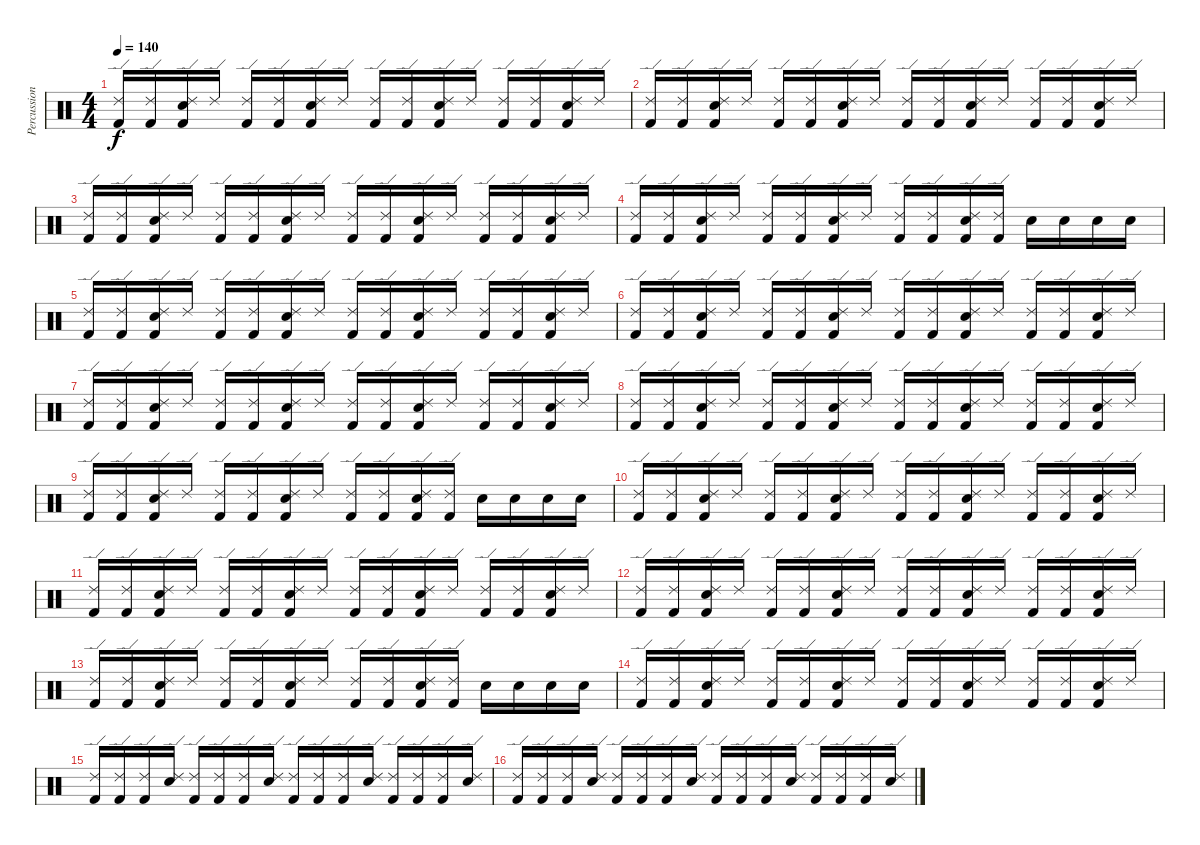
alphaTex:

\track ("Percussion" "Percussion") {instrument percussion}
\staff {score}
\articulation defaults
\ts (4 4)
\tempo 140
\clef neutral
\ks c
("Kick (hit) 2" "Ride (edge) 2").16{dy f} ("Kick (hit) 2" "Ride (edge) 2").16 ("Kick (hit) 2" "Electric Snare (hit)" "Ride (edge) 2").16 "Ride (edge) 2".16 ("Kick (hit) 2" "Ride (edge) 2").16 ("Kick (hit) 2" "Ride (edge) 2").16 ("Kick (hit) 2" "Electric Snare (hit)" "Ride (edge) 2").16 "Ride (edge) 2".16 ("Kick (hit) 2" "Ride (edge) 2").16 ("Kick (hit) 2" "Ride (edge) 2").16 ("Kick (hit) 2" "Electric Snare (hit)" "Ride (edge) 2").16 "Ride (edge) 2".16 ("Kick (hit) 2" "Ride (edge) 2").16 ("Kick (hit) 2" "Ride (edge) 2").16 ("Kick (hit) 2" "Electric Snare (hit)" "Ride (edge) 2").16 "Ride (edge) 2".16 |
("Kick (hit) 2" "Ride (edge) 2").16 ("Kick (hit) 2" "Ride (edge) 2").16 ("Kick (hit) 2" "Electric Snare (hit)" "Ride (edge) 2").16 "Ride (edge) 2".16 ("Kick (hit) 2" "Ride (edge) 2").16 ("Kick (hit) 2" "Ride (edge) 2").16 ("Kick (hit) 2" "Electric Snare (hit)" "Ride (edge) 2").16 "Ride (edge) 2".16 ("Kick (hit) 2" "Ride (edge) 2").16 ("Kick (hit) 2" "Ride (edge) 2").16 ("Kick (hit) 2" "Electric Snare (hit)" "Ride (edge) 2").16 "Ride (edge) 2".16 ("Kick (hit) 2" "Ride (edge) 2").16 ("Kick (hit) 2" "Ride (edge) 2").16 ("Kick (hit) 2" "Electric Snare (hit)" "Ride (edge) 2").16 "Ride (edge) 2".16 |
("Kick (hit) 2" "Ride (edge) 2").16 ("Kick (hit) 2" "Ride (edge) 2").16 ("Kick (hit) 2" "Electric Snare (hit)" "Ride (edge) 2").16 "Ride (edge) 2".16 ("Kick (hit) 2" "Ride (edge) 2").16 ("Kick (hit) 2" "Ride (edge) 2").16 ("Kick (hit) 2" "Electric Snare (hit)" "Ride (edge) 2").16 "Ride (edge) 2".16 ("Kick (hit) 2" "Ride (edge) 2").16 ("Kick (hit) 2" "Ride (edge) 2").16 ("Kick (hit) 2" "Electric Snare (hit)" "Ride (edge) 2").16 "Ride (edge) 2".16 ("Kick (hit) 2" "Ride (edge) 2").16 ("Kick (hit) 2" "Ride (edge) 2").16 ("Kick (hit) 2" "Electric Snare (hit)" "Ride (edge) 2").16 "Ride (edge) 2".16 |
("Kick (hit) 2" "Ride (edge) 2").16 ("Kick (hit) 2" "Ride (edge) 2").16 ("Kick (hit) 2" "Electric Snare (hit)" "Ride (edge) 2").16 "Ride (edge) 2".16 ("Kick (hit) 2" "Ride (edge) 2").16 ("Kick (hit) 2" "Ride (edge) 2").16 ("Kick (hit) 2" "Electric Snare (hit)" "Ride (edge) 2").16 "Ride (edge) 2".16 ("Kick (hit) 2" "Ride (edge) 2").16 ("Kick (hit) 2" "Ride (edge) 2").16 ("Kick (hit) 2" "Electric Snare (hit)" "Ride (edge) 2").16 ("Kick (hit) 2" "Ride (edge) 2").16 "Electric Snare (hit)".16 "Electric Snare (hit)".16 "Electric Snare (hit)".16 "Electric Snare (hit)".16 |
("Kick (hit) 2" "Ride (edge) 2").16 ("Kick (hit) 2" "Ride (edge) 2").16 ("Kick (hit) 2" "Electric Snare (hit)" "Ride (edge) 2").16 "Ride (edge) 2".16 ("Kick (hit) 2" "Ride (edge) 2").16 ("Kick (hit) 2" "Ride (edge) 2").16 ("Kick (hit) 2" "Electric Snare (hit)" "Ride (edge) 2").16 "Ride (edge) 2".16 ("Kick (hit) 2" "Ride (edge) 2").16 ("Kick (hit) 2" "Ride (edge) 2").16 ("Kick (hit) 2" "Electric Snare (hit)" "Ride (edge) 2").16 "Ride (edge) 2".16 ("Kick (hit) 2" "Ride (edge) 2").16 ("Kick (hit) 2" "Ride (edge) 2").16 ("Kick (hit) 2" "Electric Snare (hit)" "Ride (edge) 2").16 "Ride (edge) 2".16 |
("Kick (hit) 2" "Ride (edge) 2").16 ("Kick (hit) 2" "Ride (edge) 2").16 ("Kick (hit) 2" "Electric Snare (hit)" "Ride (edge) 2").16 "Ride (edge) 2".16 ("Kick (hit) 2" "Ride (edge) 2").16 ("Kick (hit) 2" "Ride (edge) 2").16 ("Kick (hit) 2" "Electric Snare (hit)" "Ride (edge) 2").16 "Ride (edge) 2".16 ("Kick (hit) 2" "Ride (edge) 2").16 ("Kick (hit) 2" "Ride (edge) 2").16 ("Kick (hit) 2" "Electric Snare (hit)" "Ride (edge) 2").16 "Ride (edge) 2".16 ("Kick (hit) 2" "Ride (edge) 2").16 ("Kick (hit) 2" "Ride (edge) 2").16 ("Kick (hit) 2" "Electric Snare (hit)" "Ride (edge) 2").16 "Ride (edge) 2".16 |
("Kick (hit) 2" "Ride (edge) 2").16 ("Kick (hit) 2" "Ride (edge) 2").16 ("Kick (hit) 2" "Electric Snare (hit)" "Ride (edge) 2").16 "Ride (edge) 2".16 ("Kick (hit) 2" "Ride (edge) 2").16 ("Kick (hit) 2" "Ride (edge) 2").16 ("Kick (hit) 2" "Electric Snare (hit)" "Ride (edge) 2").16 "Ride (edge) 2".16 ("Kick (hit) 2" "Ride (edge) 2").16 ("Kick (hit) 2" "Ride (edge) 2").16 ("Kick (hit) 2" "Electric Snare (hit)" "Ride (edge) 2").16 "Ride (edge) 2".16 ("Kick (hit) 2" "Ride (edge) 2").16 ("Kick (hit) 2" "Ride (edge) 2").16 ("Kick (hit) 2" "Electric Snare (hit)" "Ride (edge) 2").16 "Ride (edge) 2".16 |
("Kick (hit) 2" "Ride (edge) 2").16 ("Kick (hit) 2" "Ride (edge) 2").16 ("Kick (hit) 2" "Electric Snare (hit)" "Ride (edge) 2").16 "Ride (edge) 2".16 ("Kick (hit) 2" "Ride (edge) 2").16 ("Kick (hit) 2" "Ride (edge) 2").16 ("Kick (hit) 2" "Electric Snare (hit)" "Ride (edge) 2").16 "Ride (edge) 2".16 ("Kick (hit) 2" "Ride (edge) 2").16 ("Kick (hit) 2" "Ride (edge) 2").16 ("Kick (hit) 2" "Electric Snare (hit)" "Ride (edge) 2").16 "Ride (edge) 2".16 ("Kick (hit) 2" "Ride (edge) 2").16 ("Kick (hit) 2" "Ride (edge) 2").16 ("Kick (hit) 2" "Electric Snare (hit)" "Ride (edge) 2").16 "Ride (edge) 2".16 |
("Kick (hit) 2" "Ride (edge) 2").16 ("Kick (hit) 2" "Ride (edge) 2").16 ("Kick (hit) 2" "Electric Snare (hit)" "Ride (edge) 2").16 "Ride (edge) 2".16 ("Kick (hit) 2" "Ride (edge) 2").16 ("Kick (hit) 2" "Ride (edge) 2").16 ("Kick (hit) 2" "Electric Snare (hit)" "Ride (edge) 2").16 "Ride (edge) 2".16 ("Kick (hit) 2" "Ride (edge) 2").16 ("Kick (hit) 2" "Ride (edge) 2").16 ("Kick (hit) 2" "Electric Snare (hit)" "Ride (edge) 2").16 ("Kick (hit) 2" "Ride (edge) 2").16 "Electric Snare (hit)".16 "Electric Snare (hit)".16 "Electric Snare (hit)".16 "Electric Snare (hit)".16 |
("Kick (hit) 2" "Ride (edge) 2").16 ("Kick (hit) 2" "Ride (edge) 2").16 ("Kick (hit) 2" "Electric Snare (hit)" "Ride (edge) 2").16 "Ride (edge) 2".16 ("Kick (hit) 2" "Ride (edge) 2").16 ("Kick (hit) 2" "Ride (edge) 2").16 ("Kick (hit) 2" "Electric Snare (hit)" "Ride (edge) 2").16 "Ride (edge) 2".16 ("Kick (hit) 2" "Ride (edge) 2").16 ("Kick (hit) 2" "Ride (edge) 2").16 ("Kick (hit) 2" "Electric Snare (hit)" "Ride (edge) 2").16 "Ride (edge) 2".16 ("Kick (hit) 2" "Ride (edge) 2").16 ("Kick (hit) 2" "Ride (edge) 2").16 ("Kick (hit) 2" "Electric Snare (hit)" "Ride (edge) 2").16 "Ride (edge) 2".16 |
("Kick (hit) 2" "Ride (edge) 2").16 ("Kick (hit) 2" "Ride (edge) 2").16 ("Kick (hit) 2" "Electric Snare (hit)" "Ride (edge) 2").16 "Ride (edge) 2".16 ("Kick (hit) 2" "Ride (edge) 2").16 ("Kick (hit) 2" "Ride (edge) 2").16 ("Kick (hit) 2" "Electric Snare (hit)" "Ride (edge) 2").16 "Ride (edge) 2".16 ("Kick (hit) 2" "Ride (edge) 2").16 ("Kick (hit) 2" "Ride (edge) 2").16 ("Kick (hit) 2" "Electric Snare (hit)" "Ride (edge) 2").16 "Ride (edge) 2".16 ("Kick (hit) 2" "Ride (edge) 2").16 ("Kick (hit) 2" "Ride (edge) 2").16 ("Kick (hit) 2" "Electric Snare (hit)" "Ride (edge) 2").16 "Ride (edge) 2".16 |
("Kick (hit) 2" "Ride (edge) 2").16 ("Kick (hit) 2" "Ride (edge) 2").16 ("Kick (hit) 2" "Electric Snare (hit)" "Ride (edge) 2").16 "Ride (edge) 2".16 ("Kick (hit) 2" "Ride (edge) 2").16 ("Kick (hit) 2" "Ride (edge) 2").16 ("Kick (hit) 2" "Electric Snare (hit)" "Ride (edge) 2").16 "Ride (edge) 2".16 ("Kick (hit) 2" "Ride (edge) 2").16 ("Kick (hit) 2" "Ride (edge) 2").16 ("Kick (hit) 2" "Electric Snare (hit)" "Ride (edge) 2").16 "Ride (edge) 2".16 ("Kick (hit) 2" "Ride (edge) 2").16 ("Kick (hit) 2" "Ride (edge) 2").16 ("Kick (hit) 2" "Electric Snare (hit)" "Ride (edge) 2").16 "Ride (edge) 2".16 |
("Kick (hit) 2" "Ride (edge) 2").16 ("Kick (hit) 2" "Ride (edge) 2").16 ("Kick (hit) 2" "Electric Snare (hit)" "Ride (edge) 2").16 "Ride (edge) 2".16 ("Kick (hit) 2" "Ride (edge) 2").16 ("Kick (hit) 2" "Ride (edge) 2").16 ("Kick (hit) 2" "Electric Snare (hit)" "Ride (edge) 2").16 "Ride (edge) 2".16 ("Kick (hit) 2" "Ride (edge) 2").16 ("Kick (hit) 2" "Ride (edge) 2").16 ("Kick (hit) 2" "Electric Snare (hit)" "Ride (edge) 2").16 ("Kick (hit) 2" "Ride (edge) 2").16 "Electric Snare (hit)".16 "Electric Snare (hit)".16 "Electric Snare (hit)".16 "Electric Snare (hit)".16 |
("Kick (hit) 2" "Ride (edge) 2").16 ("Kick (hit) 2" "Ride (edge) 2").16 ("Kick (hit) 2" "Electric Snare (hit)" "Ride (edge) 2").16 "Ride (edge) 2".16 ("Kick (hit) 2" "Ride (edge) 2").16 ("Kick (hit) 2" "Ride (edge) 2").16 ("Kick (hit) 2" "Electric Snare (hit)" "Ride (edge) 2").16 "Ride (edge) 2".16 ("Kick (hit) 2" "Ride (edge) 2").16 ("Kick (hit) 2" "Ride (edge) 2").16 ("Kick (hit) 2" "Electric Snare (hit)" "Ride (edge) 2").16 "Ride (edge) 2".16 ("Kick (hit) 2" "Ride (edge) 2").16 ("Kick (hit) 2" "Ride (edge) 2").16 ("Kick (hit) 2" "Electric Snare (hit)" "Ride (edge) 2").16 "Ride (edge) 2".16 |
("Kick (hit) 2" "Ride (edge) 2").16 ("Kick (hit) 2" "Ride (edge) 2").16 ("Kick (hit) 2" "Ride (edge) 2").16 ("Electric Snare (hit)" "Ride (edge) 2").16 ("Kick (hit) 2" "Ride (edge) 2").16 ("Kick (hit) 2" "Ride (edge) 2").16 ("Kick (hit) 2" "Ride (edge) 2").16 ("Electric Snare (hit)" "Ride (edge) 2").16 ("Kick (hit) 2" "Ride (edge) 2").16 ("Kick (hit) 2" "Ride (edge) 2").16 ("Kick (hit) 2" "Ride (edge) 2").16 ("Electric Snare (hit)" "Ride (edge) 2").16 ("Kick (hit) 2" "Ride (edge) 2").16 ("Kick (hit) 2" "Ride (edge) 2").16 ("Kick (hit) 2" "Ride (edge) 2").16 ("Electric Snare (hit)" "Ride (edge) 2").16 |
("Kick (hit) 2" "Ride (edge) 2").16 ("Kick (hit) 2" "Ride (edge) 2").16 ("Kick (hit) 2" "Ride (edge) 2").16 ("Electric Snare (hit)" "Ride (edge) 2").16 ("Kick (hit) 2" "Ride (edge) 2").16 ("Kick (hit) 2" "Ride (edge) 2").16 ("Kick (hit) 2" "Ride (edge) 2").16 ("Electric Snare (hit)" "Ride (edge) 2").16 ("Kick (hit) 2" "Ride (edge) 2").16 ("Kick (hit) 2" "Ride (edge) 2").16 ("Kick (hit) 2" "Ride (edge) 2").16 ("Electric Snare (hit)" "Ride (edge) 2").16 ("Kick (hit) 2" "Ride (edge) 2").16 ("Kick (hit) 2" "Ride (edge) 2").16 ("Kick (hit) 2" "Ride (edge) 2").16 ("Electric Snare (hit)" "Ride (edge) 2").16
